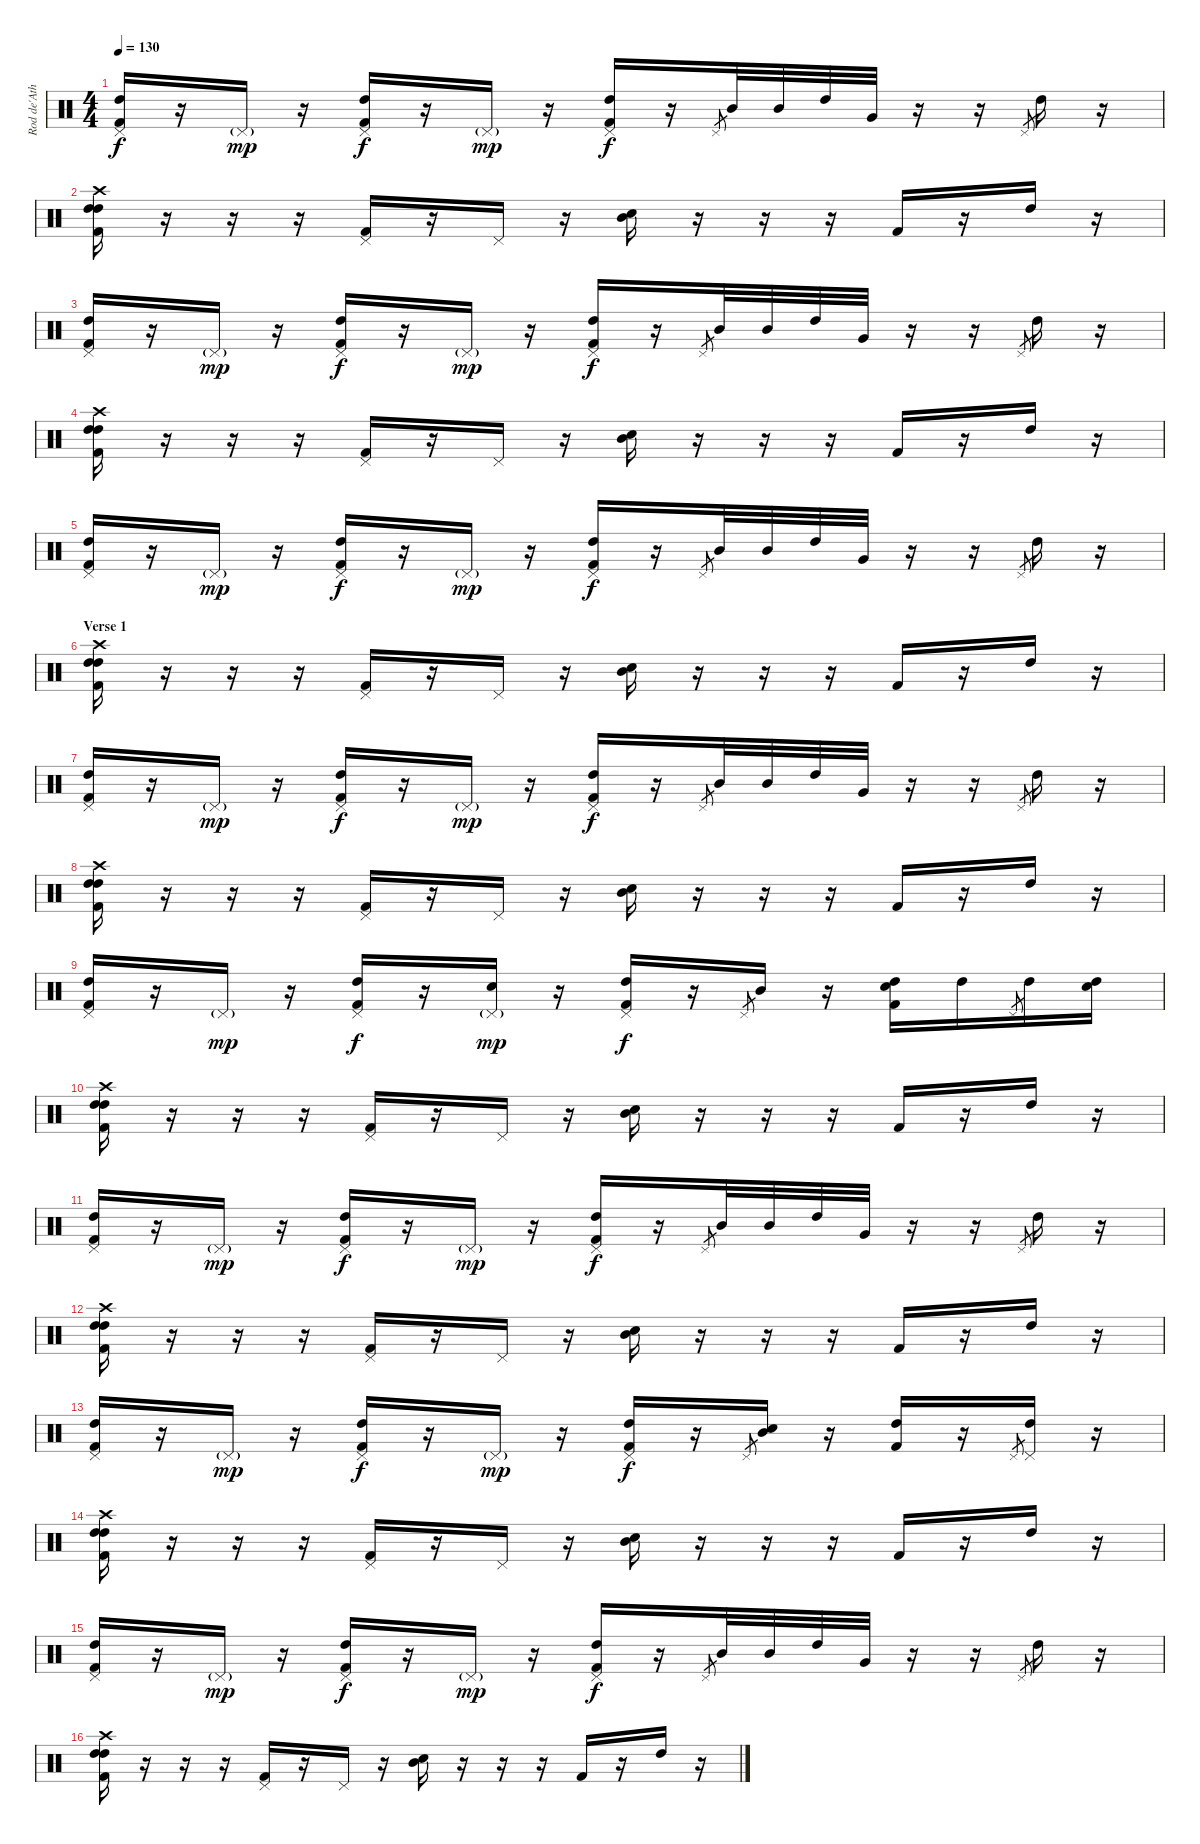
\track ("Rod de'Ath" "Rod de'Ath") {instrument percussion}
\staff {score}
\articulation defaults
\ts (4 4)
\tempo 130
\clef neutral
\ks c
("Pedal Hi-Hat (hit)" "High Tom (hit)" "Kick (hit) 2").16{dy f} r.16 "Pedal Hi-Hat (hit)"{g}.16{dy mp} r.16 ("Pedal Hi-Hat (hit)" "High Tom (hit)" "Kick (hit) 2").16{dy f} r.16 "Pedal Hi-Hat (hit)"{g}.16{dy mp} r.16 ("Pedal Hi-Hat (hit)" "High Tom (hit)" "Kick (hit) 2").16{dy f} r.16 "Pedal Hi-Hat (hit)".8{gr} "Mid Tom (hit)".32 "Mid Tom (hit)".32 "High Tom (hit)".32 "Very Low Tom (hit)".32 r.16 r.16 "Pedal Hi-Hat (hit)".8{gr} "High Tom (hit)".16 r.16 |
("Crash high (hit)" "High Tom (hit)" "High Tom (hit)" "Kick (hit) 2").16 r.16 r.16 r.16 ("Pedal Hi-Hat (hit)" "Kick (hit) 2").16 r.16 "Pedal Hi-Hat (hit)".16 r.16 ("Electric Snare (hit)" "Mid Tom (hit)").16 r.16 r.16 r.16 "Kick (hit) 2".16 r.16 "High Tom (hit)".16 r.16 |
("Pedal Hi-Hat (hit)" "High Tom (hit)" "Kick (hit) 2").16 r.16 "Pedal Hi-Hat (hit)"{g}.16{dy mp} r.16 ("Pedal Hi-Hat (hit)" "High Tom (hit)" "Kick (hit) 2").16{dy f} r.16 "Pedal Hi-Hat (hit)"{g}.16{dy mp} r.16 ("Pedal Hi-Hat (hit)" "High Tom (hit)" "Kick (hit) 2").16{dy f} r.16 "Pedal Hi-Hat (hit)".8{gr} "Mid Tom (hit)".32 "Mid Tom (hit)".32 "High Tom (hit)".32 "Very Low Tom (hit)".32 r.16 r.16 "Pedal Hi-Hat (hit)".8{gr} "High Tom (hit)".16 r.16 |
("Crash high (hit)" "High Tom (hit)" "High Tom (hit)" "Kick (hit) 2").16 r.16 r.16 r.16 ("Pedal Hi-Hat (hit)" "Kick (hit) 2").16 r.16 "Pedal Hi-Hat (hit)".16 r.16 ("Electric Snare (hit)" "Mid Tom (hit)").16 r.16 r.16 r.16 "Kick (hit) 2".16 r.16 "High Tom (hit)".16 r.16 |
("Pedal Hi-Hat (hit)" "High Tom (hit)" "Kick (hit) 2").16 r.16 "Pedal Hi-Hat (hit)"{g}.16{dy mp} r.16 ("Pedal Hi-Hat (hit)" "High Tom (hit)" "Kick (hit) 2").16{dy f} r.16 "Pedal Hi-Hat (hit)"{g}.16{dy mp} r.16 ("Pedal Hi-Hat (hit)" "High Tom (hit)" "Kick (hit) 2").16{dy f} r.16 "Pedal Hi-Hat (hit)".8{gr} "Mid Tom (hit)".32 "Mid Tom (hit)".32 "High Tom (hit)".32 "Very Low Tom (hit)".32 r.16 r.16 "Pedal Hi-Hat (hit)".8{gr} "High Tom (hit)".16 r.16 |
\section ("" "Verse 1")
("Crash high (hit)" "High Tom (hit)" "High Tom (hit)" "Kick (hit) 2").16 r.16 r.16 r.16 ("Pedal Hi-Hat (hit)" "Kick (hit) 2").16 r.16 "Pedal Hi-Hat (hit)".16 r.16 ("Electric Snare (hit)" "Mid Tom (hit)").16 r.16 r.16 r.16 "Kick (hit) 2".16 r.16 "High Tom (hit)".16 r.16 |
("Pedal Hi-Hat (hit)" "High Tom (hit)" "Kick (hit) 2").16 r.16 "Pedal Hi-Hat (hit)"{g}.16{dy mp} r.16 ("Pedal Hi-Hat (hit)" "High Tom (hit)" "Kick (hit) 2").16{dy f} r.16 "Pedal Hi-Hat (hit)"{g}.16{dy mp} r.16 ("Pedal Hi-Hat (hit)" "High Tom (hit)" "Kick (hit) 2").16{dy f} r.16 "Pedal Hi-Hat (hit)".8{gr} "Mid Tom (hit)".32 "Mid Tom (hit)".32 "High Tom (hit)".32 "Very Low Tom (hit)".32 r.16 r.16 "Pedal Hi-Hat (hit)".8{gr} "High Tom (hit)".16 r.16 |
("Crash high (hit)" "High Tom (hit)" "High Tom (hit)" "Kick (hit) 2").16 r.16 r.16 r.16 ("Pedal Hi-Hat (hit)" "Kick (hit) 2").16 r.16 "Pedal Hi-Hat (hit)".16 r.16 ("Electric Snare (hit)" "Mid Tom (hit)").16 r.16 r.16 r.16 "Kick (hit) 2".16 r.16 "High Tom (hit)".16 r.16 |
("Pedal Hi-Hat (hit)" "High Tom (hit)" "Kick (hit) 2").16 r.16 "Pedal Hi-Hat (hit)"{g}.16{dy mp} r.16 ("Pedal Hi-Hat (hit)" "High Tom (hit)" "Kick (hit) 2").16{dy f} r.16 ("Snare (hit) 2" "Pedal Hi-Hat (hit)"{g}).16{dy mp} r.16 ("Pedal Hi-Hat (hit)" "High Tom (hit)" "Kick (hit) 2").16{dy f} r.16 "Pedal Hi-Hat (hit)".8{gr} "Mid Tom (hit)".16 r.16 ("Snare (hit) 2" "High Tom (hit)" "Kick (hit) 2").16 "High Tom (hit)".16 "Pedal Hi-Hat (hit)".8{gr} "High Tom (hit)".16 ("Snare (hit) 2" "High Tom (hit)").16 |
("Crash high (hit)" "High Tom (hit)" "High Tom (hit)" "Kick (hit) 2").16 r.16 r.16 r.16 ("Pedal Hi-Hat (hit)" "Kick (hit) 2").16 r.16 "Pedal Hi-Hat (hit)".16 r.16 ("Electric Snare (hit)" "Mid Tom (hit)").16 r.16 r.16 r.16 "Kick (hit) 2".16 r.16 "High Tom (hit)".16 r.16 |
("Pedal Hi-Hat (hit)" "High Tom (hit)" "Kick (hit) 2").16 r.16 "Pedal Hi-Hat (hit)"{g}.16{dy mp} r.16 ("Pedal Hi-Hat (hit)" "High Tom (hit)" "Kick (hit) 2").16{dy f} r.16 "Pedal Hi-Hat (hit)"{g}.16{dy mp} r.16 ("Pedal Hi-Hat (hit)" "High Tom (hit)" "Kick (hit) 2").16{dy f} r.16 "Pedal Hi-Hat (hit)".8{gr} "Mid Tom (hit)".32 "Mid Tom (hit)".32 "High Tom (hit)".32 "Very Low Tom (hit)".32 r.16 r.16 "Pedal Hi-Hat (hit)".8{gr} "High Tom (hit)".16 r.16 |
("Crash high (hit)" "High Tom (hit)" "High Tom (hit)" "Kick (hit) 2").16 r.16 r.16 r.16 ("Pedal Hi-Hat (hit)" "Kick (hit) 2").16 r.16 "Pedal Hi-Hat (hit)".16 r.16 ("Electric Snare (hit)" "Mid Tom (hit)").16 r.16 r.16 r.16 "Kick (hit) 2".16 r.16 "High Tom (hit)".16 r.16 |
("Pedal Hi-Hat (hit)" "High Tom (hit)" "Kick (hit) 2").16 r.16 "Pedal Hi-Hat (hit)"{g}.16{dy mp} r.16 ("Pedal Hi-Hat (hit)" "High Tom (hit)" "Kick (hit) 2").16{dy f} r.16 "Pedal Hi-Hat (hit)"{g}.16{dy mp} r.16 ("Pedal Hi-Hat (hit)" "High Tom (hit)" "Kick (hit) 2").16{dy f} r.16 "Pedal Hi-Hat (hit)".8{gr} ("Electric Snare (hit)" "Mid Tom (hit)").16 r.16 ("High Tom (hit)" "Kick (hit) 2").16 r.16 "Pedal Hi-Hat (hit)".8{gr} ("Pedal Hi-Hat (hit)" "High Tom (hit)").16 r.16 |
("Crash high (hit)" "High Tom (hit)" "High Tom (hit)" "Kick (hit) 2").16 r.16 r.16 r.16 ("Pedal Hi-Hat (hit)" "Kick (hit) 2").16 r.16 "Pedal Hi-Hat (hit)".16 r.16 ("Electric Snare (hit)" "Mid Tom (hit)").16 r.16 r.16 r.16 "Kick (hit) 2".16 r.16 "High Tom (hit)".16 r.16 |
("Pedal Hi-Hat (hit)" "High Tom (hit)" "Kick (hit) 2").16 r.16 "Pedal Hi-Hat (hit)"{g}.16{dy mp} r.16 ("Pedal Hi-Hat (hit)" "High Tom (hit)" "Kick (hit) 2").16{dy f} r.16 "Pedal Hi-Hat (hit)"{g}.16{dy mp} r.16 ("Pedal Hi-Hat (hit)" "High Tom (hit)" "Kick (hit) 2").16{dy f} r.16 "Pedal Hi-Hat (hit)".8{gr} "Mid Tom (hit)".32 "Mid Tom (hit)".32 "High Tom (hit)".32 "Very Low Tom (hit)".32 r.16 r.16 "Pedal Hi-Hat (hit)".8{gr} "High Tom (hit)".16 r.16 |
("Crash high (hit)" "High Tom (hit)" "High Tom (hit)" "Kick (hit) 2").16 r.16 r.16 r.16 ("Pedal Hi-Hat (hit)" "Kick (hit) 2").16 r.16 "Pedal Hi-Hat (hit)".16 r.16 ("Electric Snare (hit)" "Mid Tom (hit)").16 r.16 r.16 r.16 "Kick (hit) 2".16 r.16 "High Tom (hit)".16 r.16
